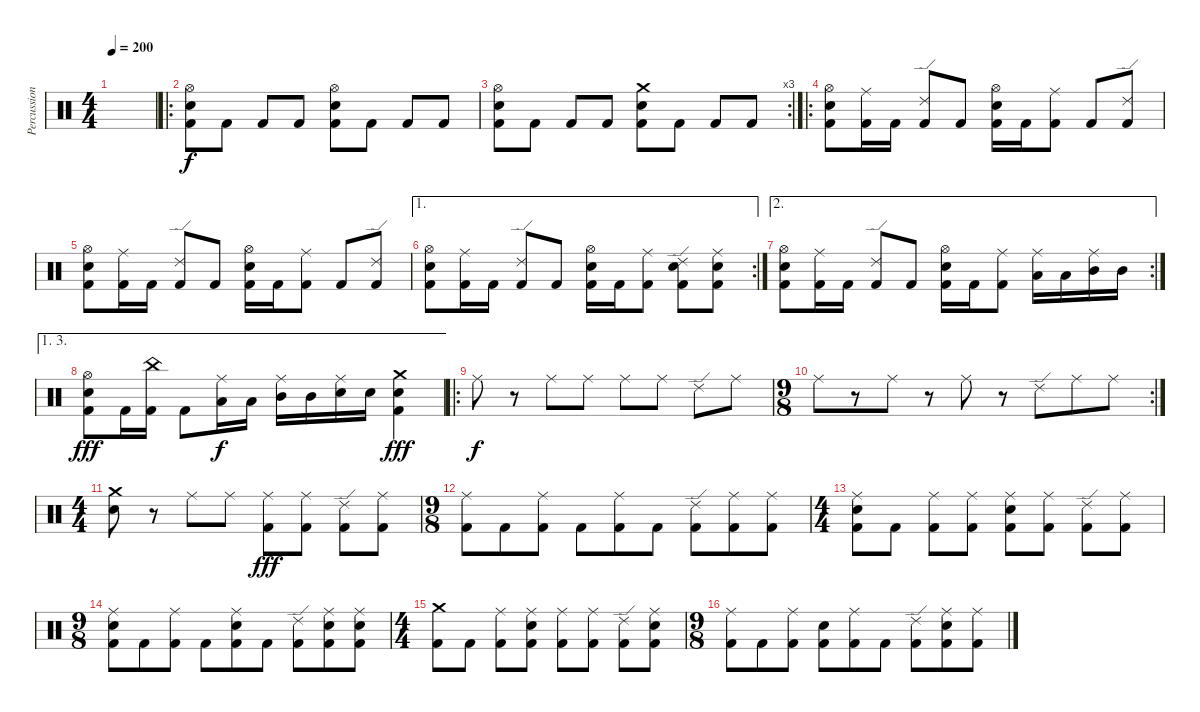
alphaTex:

\track ("Percussion" "Percussion") {instrument percussion}
\staff {score}
\articulation defaults
\ts (4 4)
\tempo 200
\clef neutral
\ks c
|
\ro
("Hi-Hat (open)" "Electric Snare (hit)" "Kick (hit) 2").8 "Kick (hit) 2".8 "Kick (hit) 2".8 "Kick (hit) 2".8 ("Hi-Hat (open)" "Electric Snare (hit)" "Kick (hit) 2").8 "Kick (hit) 2".8 "Kick (hit) 2".8 "Kick (hit) 2".8 |
\rc 3
("Hi-Hat (open)" "Electric Snare (hit)" "Kick (hit) 2").8 "Kick (hit) 2".8 "Kick (hit) 2".8 "Kick (hit) 2".8 ("Crash medium (hit)" "Electric Snare (hit)" "Kick (hit) 2").8 "Kick (hit) 2".8 "Kick (hit) 2".8 "Kick (hit) 2".8 |
\ro
("Hi-Hat (open)" "Electric Snare (hit)" "Kick (hit) 2").8 ("Ride (middle)" "Kick (hit) 2").16 "Kick (hit) 2".16 ("Ride (edge) 2" "Kick (hit) 2").8 "Kick (hit) 2".8 ("Hi-Hat (open)" "Electric Snare (hit)" "Kick (hit) 2").16 "Kick (hit) 2".16 ("Ride (middle)" "Kick (hit) 2").8 "Kick (hit) 2".8 ("Ride (edge) 2" "Kick (hit) 2").8 |
("Hi-Hat (open)" "Electric Snare (hit)" "Kick (hit) 2").8 ("Ride (middle)" "Kick (hit) 2").16 "Kick (hit) 2".16 ("Ride (edge) 2" "Kick (hit) 2").8 "Kick (hit) 2".8 ("Hi-Hat (open)" "Electric Snare (hit)" "Kick (hit) 2").16 "Kick (hit) 2".16 ("Ride (middle)" "Kick (hit) 2").8 "Kick (hit) 2".8 ("Ride (edge) 2" "Kick (hit) 2").8 |
\ae 1
\rc 2
("Hi-Hat (open)" "Electric Snare (hit)" "Kick (hit) 2").8 ("Ride (middle)" "Kick (hit) 2").16 "Kick (hit) 2".16 ("Ride (edge) 2" "Kick (hit) 2").8 "Kick (hit) 2".8 ("Hi-Hat (open)" "Electric Snare (hit)" "Kick (hit) 2").16 "Kick (hit) 2".16 ("Ride (middle)" "Kick (hit) 2").8 ("Ride (edge) 2" "Electric Snare (hit)" "Kick (hit) 2").8 ("Ride (middle)" "Electric Snare (hit)" "Kick (hit) 2").8 |
\ae 2
\rc 2
("Hi-Hat (open)" "Electric Snare (hit)" "Kick (hit) 2").8 ("Ride (middle)" "Kick (hit) 2").16 "Kick (hit) 2".16 ("Ride (edge) 2" "Kick (hit) 2").8 "Kick (hit) 2".8 ("Hi-Hat (open)" "Electric Snare (hit)" "Kick (hit) 2").16 "Kick (hit) 2".16 ("Ride (middle)" "Kick (hit) 2").8 ("Ride (middle)" "Low Tom (hit)").16{dy f} "Low Tom (hit)".16 ("Ride (middle)" "Mid Tom (hit)").16 "Mid Tom (hit)".16 |
\ae (1 3)
("Hi-Hat (open)" "Electric Snare (hit)" "Kick (hit) 2").8{dy fff} "Kick (hit) 2".16 ("China (hit)" "Kick (hit) 2").16 "Kick (hit) 2".8 ("Ride (middle)" "Low Tom (hit)").16{dy f} "Low Tom (hit)".16 ("Ride (middle)" "Mid Tom (hit)").16 "Mid Tom (hit)".16 ("Ride (middle)" "Electric Snare (hit)").16 "Electric Snare (hit)".16 ("Crash medium (hit)" "Electric Snare (hit)" "Kick (hit) 2").4{dy fff} |
\ro "Ride (middle)".8{dy f}
r.8 "Ride (middle)".8 "Ride (middle)".8 "Ride (middle)".8 "Ride (middle)".8 "Ride (edge) 2".8 "Ride (middle)".8 |
\rc 2
\ts (9 8)
"Ride (middle)".8 r.8 "Ride (middle)".8 r.8 "Ride (middle)".8 r.8 "Ride (edge) 2".8 "Ride (middle)".8 "Ride (middle)".8 |
\ts (4 4)
("Crash medium (hit)" "Electric Snare (hit)").8 r.8 "Ride (middle)".8 "Ride (middle)".8 ("Ride (middle)" "Kick (hit) 2").8{dy fff} ("Ride (middle)" "Kick (hit) 2").8 ("Ride (edge) 2" "Kick (hit) 2").8 ("Ride (middle)" "Kick (hit) 2").8 |
\ts (9 8)
("Ride (middle)" "Kick (hit) 2").8 "Kick (hit) 2".8 ("Ride (middle)" "Kick (hit) 2").8 "Kick (hit) 2".8 ("Ride (middle)" "Kick (hit) 2").8 "Kick (hit) 2".8 ("Ride (edge) 2" "Kick (hit) 2").8 ("Ride (middle)" "Kick (hit) 2").8 ("Ride (middle)" "Kick (hit) 2").8 |
\ts (4 4)
("Ride (middle)" "Electric Snare (hit)" "Kick (hit) 2").8 "Kick (hit) 2".8 ("Ride (middle)" "Kick (hit) 2").8 ("Ride (middle)" "Kick (hit) 2").8 ("Ride (middle)" "Electric Snare (hit)" "Kick (hit) 2").8 ("Ride (middle)" "Kick (hit) 2").8 ("Ride (edge) 2" "Kick (hit) 2").8 ("Ride (middle)" "Kick (hit) 2").8 |
\ts (9 8)
("Ride (middle)" "Electric Snare (hit)" "Kick (hit) 2").8 "Kick (hit) 2".8 ("Ride (middle)" "Kick (hit) 2").8 "Kick (hit) 2".8 ("Ride (middle)" "Electric Snare (hit)" "Kick (hit) 2").8 "Kick (hit) 2".8 ("Ride (edge) 2" "Kick (hit) 2").8 ("Ride (middle)" "Electric Snare (hit)" "Kick (hit) 2").8 ("Ride (middle)" "Electric Snare (hit)" "Kick (hit) 2").8 |
\ts (4 4)
("Crash medium (hit)" "Kick (hit) 2").8 "Kick (hit) 2".8 ("Ride (middle)" "Kick (hit) 2").8 ("Ride (middle)" "Electric Snare (hit)" "Kick (hit) 2").8 ("Ride (middle)" "Kick (hit) 2").8 ("Ride (middle)" "Kick (hit) 2").8 ("Ride (edge) 2" "Kick (hit) 2").8 ("Ride (middle)" "Electric Snare (hit)" "Kick (hit) 2").8 |
\ts (9 8)
("Ride (middle)" "Kick (hit) 2").8 "Kick (hit) 2".8 ("Ride (middle)" "Kick (hit) 2").8 ("Electric Snare (hit)" "Kick (hit) 2").8 ("Ride (middle)" "Kick (hit) 2").8 "Kick (hit) 2".8 ("Ride (edge) 2" "Kick (hit) 2").8 ("Ride (middle)" "Electric Snare (hit)" "Kick (hit) 2").8 ("Ride (middle)" "Kick (hit) 2").8
